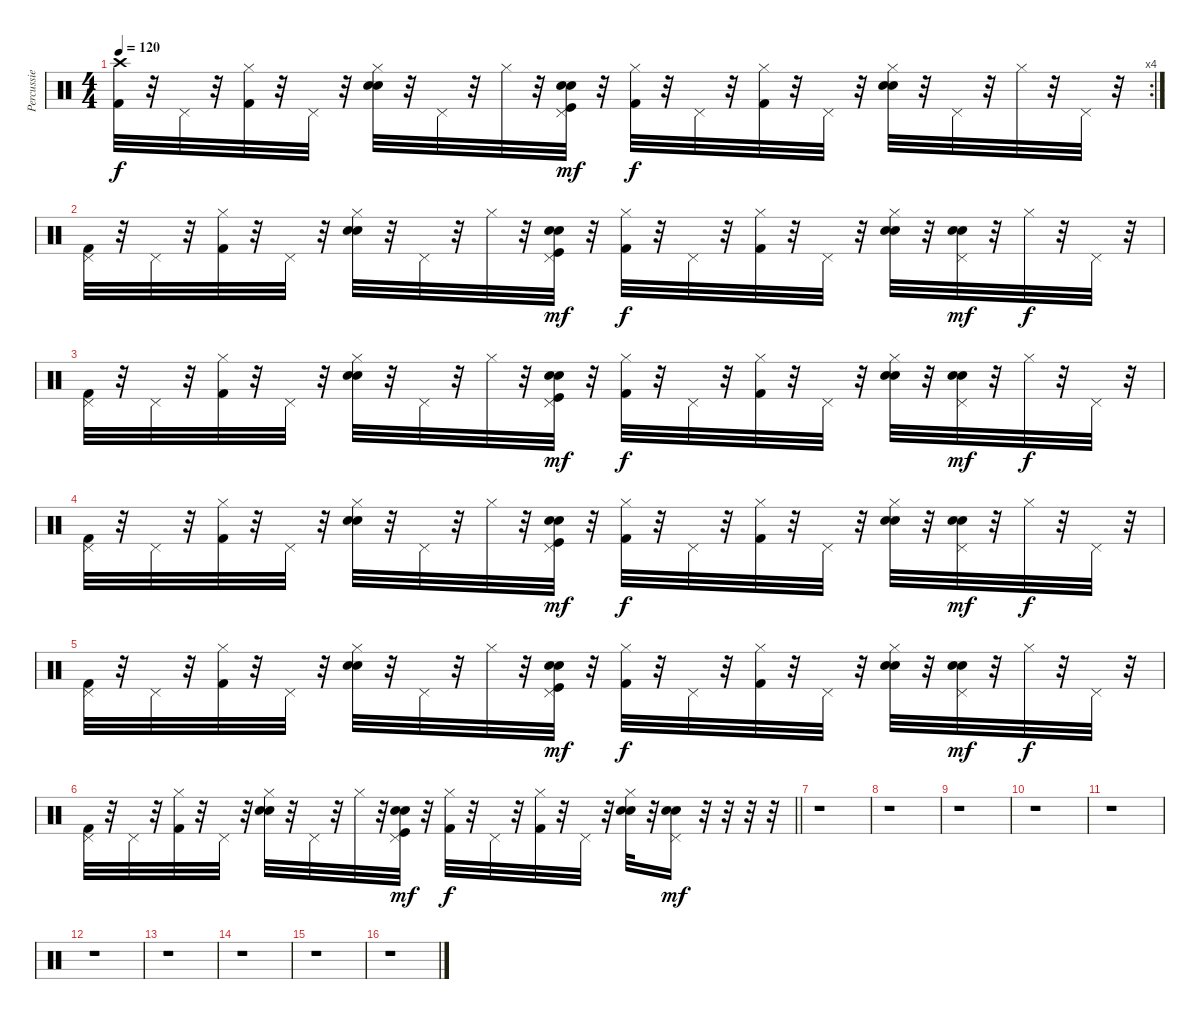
\track ("Percussie" "Percussie") {instrument percussion}
\staff {score}
\articulation defaults
\rc 4
\ts (4 4)
\tempo 120
\clef neutral
\ks c
("Crash high (hit)" "Kick (hit) 2").32{dy f} r.32 "Pedal Hi-Hat (hit)".32 r.32 ("Hi-Hat (closed)" "Kick (hit) 2").32 r.32 "Pedal Hi-Hat (hit)".32 r.32 ("Hi-Hat (closed)" "Hand Clap (hit)" "Electric Snare (hit)").32 r.32 "Pedal Hi-Hat (hit)".32 r.32 "Hi-Hat (closed)".32 r.32 ("Hand Clap (hit)" "Electric Snare (hit)" "Pedal Hi-Hat (hit)" "Kick (hit)").32{dy mf} r.32 ("Hi-Hat (closed)" "Kick (hit) 2").32{dy f} r.32 "Pedal Hi-Hat (hit)".32 r.32 ("Hi-Hat (closed)" "Kick (hit) 2").32 r.32 "Pedal Hi-Hat (hit)".32 r.32 ("Hi-Hat (closed)" "Hand Clap (hit)" "Electric Snare (hit)").32 r.32 "Pedal Hi-Hat (hit)".32 r.32 "Hi-Hat (closed)".32 r.32 "Pedal Hi-Hat (hit)".32 r.32 |
("Pedal Hi-Hat (hit)" "Kick (hit) 2").32 r.32 "Pedal Hi-Hat (hit)".32 r.32 ("Hi-Hat (closed)" "Kick (hit) 2").32 r.32 "Pedal Hi-Hat (hit)".32 r.32 ("Hi-Hat (closed)" "Hand Clap (hit)" "Electric Snare (hit)").32 r.32 "Pedal Hi-Hat (hit)".32 r.32 "Hi-Hat (closed)".32 r.32 ("Hand Clap (hit)" "Electric Snare (hit)" "Pedal Hi-Hat (hit)" "Kick (hit)").32{dy mf} r.32 ("Hi-Hat (closed)" "Kick (hit) 2").32{dy f} r.32 "Pedal Hi-Hat (hit)".32 r.32 ("Hi-Hat (closed)" "Kick (hit) 2").32 r.32 "Pedal Hi-Hat (hit)".32 r.32 ("Hi-Hat (closed)" "Hand Clap (hit)" "Electric Snare (hit)").32 r.32 ("Hand Clap (hit)" "Electric Snare (hit)" "Pedal Hi-Hat (hit)").32{dy mf} r.32 "Hi-Hat (closed)".32{dy f} r.32 "Pedal Hi-Hat (hit)".32 r.32 |
("Pedal Hi-Hat (hit)" "Kick (hit) 2").32 r.32 "Pedal Hi-Hat (hit)".32 r.32 ("Hi-Hat (closed)" "Kick (hit) 2").32 r.32 "Pedal Hi-Hat (hit)".32 r.32 ("Hi-Hat (closed)" "Hand Clap (hit)" "Electric Snare (hit)").32 r.32 "Pedal Hi-Hat (hit)".32 r.32 "Hi-Hat (closed)".32 r.32 ("Hand Clap (hit)" "Electric Snare (hit)" "Pedal Hi-Hat (hit)" "Kick (hit)").32{dy mf} r.32 ("Hi-Hat (closed)" "Kick (hit) 2").32{dy f} r.32 "Pedal Hi-Hat (hit)".32 r.32 ("Hi-Hat (closed)" "Kick (hit) 2").32 r.32 "Pedal Hi-Hat (hit)".32 r.32 ("Hi-Hat (closed)" "Hand Clap (hit)" "Electric Snare (hit)").32 r.32 ("Hand Clap (hit)" "Electric Snare (hit)" "Pedal Hi-Hat (hit)").32{dy mf} r.32 "Hi-Hat (closed)".32{dy f} r.32 "Pedal Hi-Hat (hit)".32 r.32 |
("Pedal Hi-Hat (hit)" "Kick (hit) 2").32 r.32 "Pedal Hi-Hat (hit)".32 r.32 ("Hi-Hat (closed)" "Kick (hit) 2").32 r.32 "Pedal Hi-Hat (hit)".32 r.32 ("Hi-Hat (closed)" "Hand Clap (hit)" "Electric Snare (hit)").32 r.32 "Pedal Hi-Hat (hit)".32 r.32 "Hi-Hat (closed)".32 r.32 ("Hand Clap (hit)" "Electric Snare (hit)" "Pedal Hi-Hat (hit)" "Kick (hit)").32{dy mf} r.32 ("Hi-Hat (closed)" "Kick (hit) 2").32{dy f} r.32 "Pedal Hi-Hat (hit)".32 r.32 ("Hi-Hat (closed)" "Kick (hit) 2").32 r.32 "Pedal Hi-Hat (hit)".32 r.32 ("Hi-Hat (closed)" "Hand Clap (hit)" "Electric Snare (hit)").32 r.32 ("Hand Clap (hit)" "Electric Snare (hit)" "Pedal Hi-Hat (hit)").32{dy mf} r.32 "Hi-Hat (closed)".32{dy f} r.32 "Pedal Hi-Hat (hit)".32 r.32 |
("Pedal Hi-Hat (hit)" "Kick (hit) 2").32 r.32 "Pedal Hi-Hat (hit)".32 r.32 ("Hi-Hat (closed)" "Kick (hit) 2").32 r.32 "Pedal Hi-Hat (hit)".32 r.32 ("Hi-Hat (closed)" "Hand Clap (hit)" "Electric Snare (hit)").32 r.32 "Pedal Hi-Hat (hit)".32 r.32 "Hi-Hat (closed)".32 r.32 ("Hand Clap (hit)" "Electric Snare (hit)" "Pedal Hi-Hat (hit)" "Kick (hit)").32{dy mf} r.32 ("Hi-Hat (closed)" "Kick (hit) 2").32{dy f} r.32 "Pedal Hi-Hat (hit)".32 r.32 ("Hi-Hat (closed)" "Kick (hit) 2").32 r.32 "Pedal Hi-Hat (hit)".32 r.32 ("Hi-Hat (closed)" "Hand Clap (hit)" "Electric Snare (hit)").32 r.32 ("Hand Clap (hit)" "Electric Snare (hit)" "Pedal Hi-Hat (hit)").32{dy mf} r.32 "Hi-Hat (closed)".32{dy f} r.32 "Pedal Hi-Hat (hit)".32 r.32 |
\barLineRight lightlight
("Pedal Hi-Hat (hit)" "Kick (hit) 2").32 r.32 "Pedal Hi-Hat (hit)".32 r.32 ("Hi-Hat (closed)" "Kick (hit) 2").32 r.32 "Pedal Hi-Hat (hit)".32 r.32 ("Hi-Hat (closed)" "Hand Clap (hit)" "Electric Snare (hit)").32 r.32 "Pedal Hi-Hat (hit)".32 r.32 "Hi-Hat (closed)".32 r.32 ("Hand Clap (hit)" "Electric Snare (hit)" "Pedal Hi-Hat (hit)" "Kick (hit)").32{dy mf} r.32 ("Hi-Hat (closed)" "Kick (hit) 2").32{dy f} r.32 "Pedal Hi-Hat (hit)".32 r.32 ("Hi-Hat (closed)" "Kick (hit) 2").32 r.32 "Pedal Hi-Hat (hit)".32 r.32 ("Hi-Hat (closed)" "Hand Clap (hit)" "Electric Snare (hit)").32 r.32 ("Hand Clap (hit)" "Electric Snare (hit)" "Pedal Hi-Hat (hit)").16{dy mf} r.32 r.32 r.32 r.32 |
r.1 |
r.1 |
r.1 |
r.1 |
r.1 |
r.1 |
r.1 |
r.1 |
r.1 |
r.1
